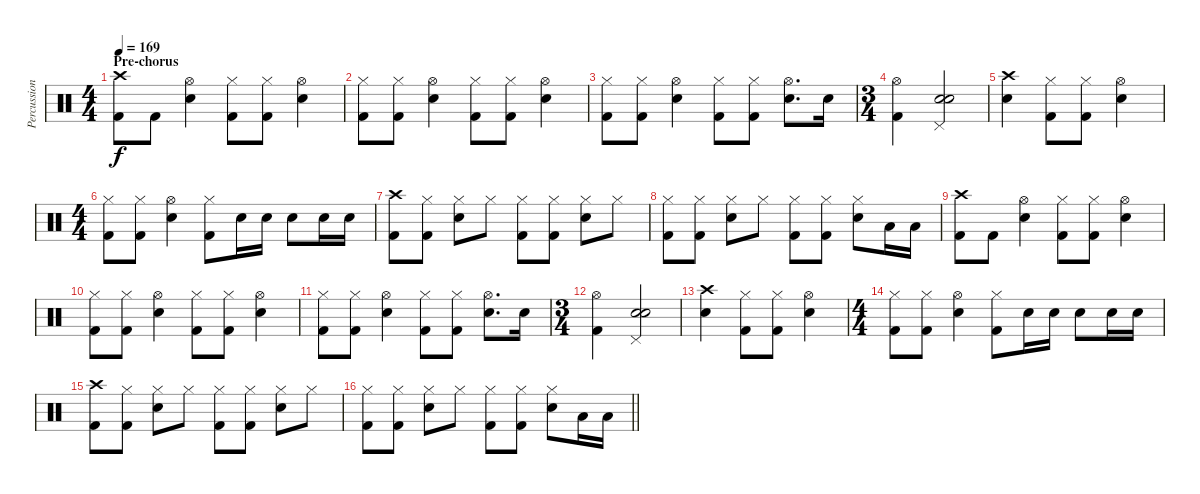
\track ("Percussion" "Percussion") {instrument percussion}
\staff {score}
\articulation defaults
\ts (4 4)
\section ("" "Pre-chorus")
\tempo 169
\clef neutral
\ks c
("Crash high (hit)" "Kick (hit) 2").8{dy f} "Kick (hit) 2".8 ("Hi-Hat (open)" "Electric Snare (hit)").4 ("Hi-Hat (closed)" "Kick (hit) 2").8 ("Hi-Hat (closed)" "Kick (hit) 2").8 ("Hi-Hat (open)" "Electric Snare (hit)").4 |
("Hi-Hat (closed)" "Kick (hit) 2").8 ("Hi-Hat (closed)" "Kick (hit) 2").8 ("Hi-Hat (open)" "Electric Snare (hit)").4 ("Hi-Hat (closed)" "Kick (hit) 2").8 ("Hi-Hat (closed)" "Kick (hit) 2").8 ("Hi-Hat (open)" "Electric Snare (hit)").4 |
("Hi-Hat (closed)" "Kick (hit) 2").8 ("Hi-Hat (closed)" "Kick (hit) 2").8 ("Hi-Hat (open)" "Electric Snare (hit)").4 ("Hi-Hat (closed)" "Kick (hit) 2").8 ("Hi-Hat (closed)" "Kick (hit) 2").8 ("Hi-Hat (open)" "Electric Snare (hit)").8{d} "Electric Snare (hit)".16 |
\ts (3 4)
("Hi-Hat (open)" "Kick (hit) 2").4 ("Pedal Hi-Hat (hit)" "Electric Snare (hit)" "Electric Snare (hit)").2 |
("Crash high (hit)" "Electric Snare (hit)").4 ("Hi-Hat (closed)" "Kick (hit) 2").8 ("Hi-Hat (closed)" "Kick (hit) 2").8 ("Hi-Hat (open)" "Electric Snare (hit)").4 |
\ts (4 4)
("Hi-Hat (closed)" "Kick (hit) 2").8 ("Hi-Hat (closed)" "Kick (hit) 2").8 ("Hi-Hat (open)" "Electric Snare (hit)").4 ("Hi-Hat (closed)" "Kick (hit) 2").8 "Electric Snare (hit)".16 "Electric Snare (hit)".16 "Electric Snare (hit)".8 "Electric Snare (hit)".16 "Electric Snare (hit)".16 |
("Crash high (hit)" "Kick (hit) 2").8 ("Hi-Hat (closed)" "Kick (hit) 2").8 ("Hi-Hat (closed)" "Electric Snare (hit)").8 "Hi-Hat (closed)".8 ("Hi-Hat (closed)" "Kick (hit) 2").8 ("Hi-Hat (closed)" "Kick (hit) 2").8 ("Hi-Hat (closed)" "Electric Snare (hit)").8 "Hi-Hat (closed)".8 |
("Hi-Hat (closed)" "Kick (hit) 2").8 ("Hi-Hat (closed)" "Kick (hit) 2").8 ("Hi-Hat (closed)" "Electric Snare (hit)").8 "Hi-Hat (closed)".8 ("Hi-Hat (closed)" "Kick (hit) 2").8 ("Hi-Hat (closed)" "Kick (hit) 2").8 ("Hi-Hat (closed)" "Electric Snare (hit)").8 "Low Floor Tom (hit)".16 "Low Floor Tom (hit)".16 |
("Crash high (hit)" "Kick (hit) 2").8 "Kick (hit) 2".8 ("Hi-Hat (open)" "Electric Snare (hit)").4 ("Hi-Hat (closed)" "Kick (hit) 2").8 ("Hi-Hat (closed)" "Kick (hit) 2").8 ("Hi-Hat (open)" "Electric Snare (hit)").4 |
("Hi-Hat (closed)" "Kick (hit) 2").8 ("Hi-Hat (closed)" "Kick (hit) 2").8 ("Hi-Hat (open)" "Electric Snare (hit)").4 ("Hi-Hat (closed)" "Kick (hit) 2").8 ("Hi-Hat (closed)" "Kick (hit) 2").8 ("Hi-Hat (open)" "Electric Snare (hit)").4 |
("Hi-Hat (closed)" "Kick (hit) 2").8 ("Hi-Hat (closed)" "Kick (hit) 2").8 ("Hi-Hat (open)" "Electric Snare (hit)").4 ("Hi-Hat (closed)" "Kick (hit) 2").8 ("Hi-Hat (closed)" "Kick (hit) 2").8 ("Hi-Hat (open)" "Electric Snare (hit)").8{d} "Electric Snare (hit)".16 |
\ts (3 4)
("Hi-Hat (open)" "Kick (hit) 2").4 ("Pedal Hi-Hat (hit)" "Electric Snare (hit)" "Electric Snare (hit)").2 |
("Crash high (hit)" "Electric Snare (hit)").4 ("Hi-Hat (closed)" "Kick (hit) 2").8 ("Hi-Hat (closed)" "Kick (hit) 2").8 ("Hi-Hat (open)" "Electric Snare (hit)").4 |
\ts (4 4)
("Hi-Hat (closed)" "Kick (hit) 2").8 ("Hi-Hat (closed)" "Kick (hit) 2").8 ("Hi-Hat (open)" "Electric Snare (hit)").4 ("Hi-Hat (closed)" "Kick (hit) 2").8 "Electric Snare (hit)".16 "Electric Snare (hit)".16 "Electric Snare (hit)".8 "Electric Snare (hit)".16 "Electric Snare (hit)".16 |
("Crash high (hit)" "Kick (hit) 2").8 ("Hi-Hat (closed)" "Kick (hit) 2").8 ("Hi-Hat (closed)" "Electric Snare (hit)").8 "Hi-Hat (closed)".8 ("Hi-Hat (closed)" "Kick (hit) 2").8 ("Hi-Hat (closed)" "Kick (hit) 2").8 ("Hi-Hat (closed)" "Electric Snare (hit)").8 "Hi-Hat (closed)".8 |
\barLineRight lightlight
("Hi-Hat (closed)" "Kick (hit) 2").8 ("Hi-Hat (closed)" "Kick (hit) 2").8 ("Hi-Hat (closed)" "Electric Snare (hit)").8 "Hi-Hat (closed)".8 ("Hi-Hat (closed)" "Kick (hit) 2").8 ("Hi-Hat (closed)" "Kick (hit) 2").8 ("Hi-Hat (closed)" "Electric Snare (hit)").8 "Low Floor Tom (hit)".16 "Low Floor Tom (hit)".16
